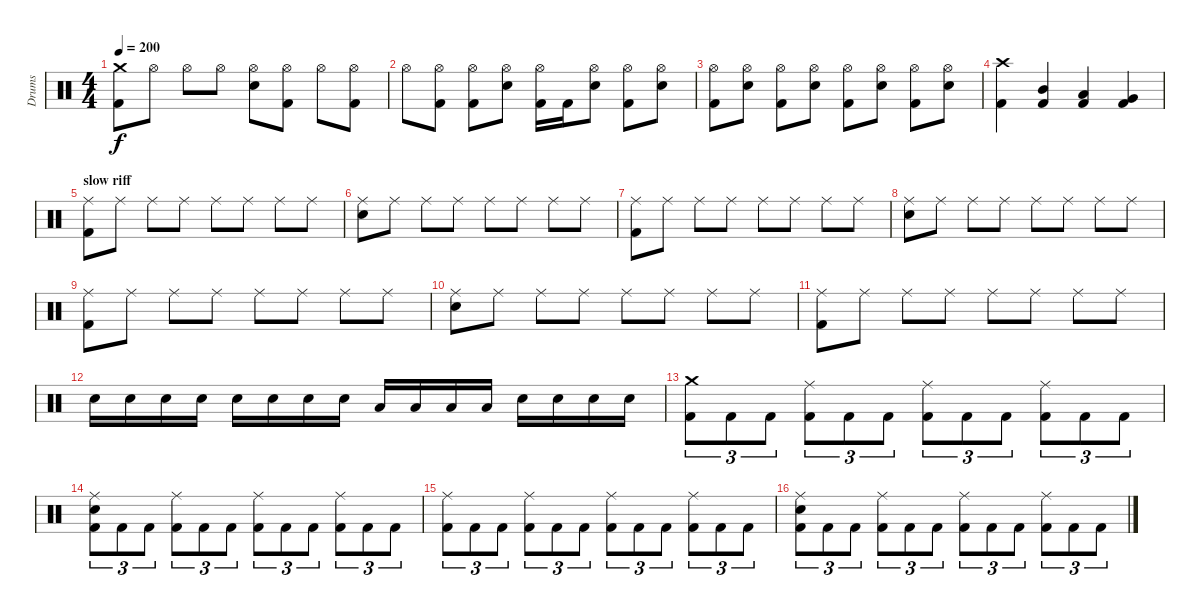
\track ("Drums" "Drums") {instrument percussion}
\staff {score}
\articulation defaults
\ts (4 4)
\tempo 200
\clef neutral
\ks c
("Crash medium (hit)" "Kick (hit) 2").8{dy f} "Hi-Hat (open)".8 "Hi-Hat (open)".8 "Hi-Hat (open)".8 ("Hi-Hat (open)" "Electric Snare (hit)").8 ("Hi-Hat (open)" "Kick (hit) 2").8 "Hi-Hat (open)".8 ("Hi-Hat (open)" "Kick (hit) 2").8 |
"Hi-Hat (open)".8 ("Hi-Hat (open)" "Kick (hit) 2").8 ("Hi-Hat (open)" "Kick (hit) 2").8 ("Hi-Hat (open)" "Electric Snare (hit)").8 ("Hi-Hat (open)" "Kick (hit) 2").16 "Kick (hit) 2".16 ("Hi-Hat (open)" "Electric Snare (hit)").8 ("Hi-Hat (open)" "Kick (hit) 2").8 ("Hi-Hat (open)" "Electric Snare (hit)").8 |
("Hi-Hat (open)" "Kick (hit) 2").8 ("Hi-Hat (open)" "Electric Snare (hit)").8 ("Hi-Hat (open)" "Kick (hit) 2").8 ("Hi-Hat (open)" "Electric Snare (hit)").8 ("Hi-Hat (open)" "Kick (hit) 2").8 ("Hi-Hat (open)" "Electric Snare (hit)").8 ("Hi-Hat (open)" "Kick (hit) 2").8 ("Hi-Hat (open)" "Electric Snare (hit)").8 |
("Crash high (hit)" "Kick (hit) 2").4 ("Mid Tom (hit)" "Kick (hit) 2").4 ("Low Tom (hit)" "Kick (hit) 2").4 ("Very Low Tom (hit)" "Kick (hit) 2").4 |
\section ("" "slow riff")
("Ride (middle)" "Kick (hit) 2").8 "Ride (middle)".8 "Ride (middle)".8 "Ride (middle)".8 "Ride (middle)".8 "Ride (middle)".8 "Ride (middle)".8 "Ride (middle)".8 |
("Ride (middle)" "Electric Snare (hit)").8 "Ride (middle)".8 "Ride (middle)".8 "Ride (middle)".8 "Ride (middle)".8 "Ride (middle)".8 "Ride (middle)".8 "Ride (middle)".8 |
("Ride (middle)" "Kick (hit) 2").8 "Ride (middle)".8 "Ride (middle)".8 "Ride (middle)".8 "Ride (middle)".8 "Ride (middle)".8 "Ride (middle)".8 "Ride (middle)".8 |
("Ride (middle)" "Electric Snare (hit)").8 "Ride (middle)".8 "Ride (middle)".8 "Ride (middle)".8 "Ride (middle)".8 "Ride (middle)".8 "Ride (middle)".8 "Ride (middle)".8 |
("Ride (middle)" "Kick (hit) 2").8 "Ride (middle)".8 "Ride (middle)".8 "Ride (middle)".8 "Ride (middle)".8 "Ride (middle)".8 "Ride (middle)".8 "Ride (middle)".8 |
("Ride (middle)" "Electric Snare (hit)").8 "Ride (middle)".8 "Ride (middle)".8 "Ride (middle)".8 "Ride (middle)".8 "Ride (middle)".8 "Ride (middle)".8 "Ride (middle)".8 |
("Ride (middle)" "Kick (hit) 2").8 "Ride (middle)".8 "Ride (middle)".8 "Ride (middle)".8 "Ride (middle)".8 "Ride (middle)".8 "Ride (middle)".8 "Ride (middle)".8 |
"Electric Snare (hit)".16 "Electric Snare (hit)".16 "Electric Snare (hit)".16 "Electric Snare (hit)".16 "Electric Snare (hit)".16 "Electric Snare (hit)".16 "Electric Snare (hit)".16 "Electric Snare (hit)".16 "Low Tom (hit)".16 "Low Tom (hit)".16 "Low Tom (hit)".16 "Low Tom (hit)".16 "Electric Snare (hit)".16 "Electric Snare (hit)".16 "Electric Snare (hit)".16 "Electric Snare (hit)".16 |
("Crash medium (hit)" "Kick (hit) 2").8{tu (3 2)} "Kick (hit) 2".8{tu (3 2)} "Kick (hit) 2".8{tu (3 2)} ("Ride (middle)" "Kick (hit) 2").8{tu (3 2)} "Kick (hit) 2".8{tu (3 2)} "Kick (hit) 2".8{tu (3 2)} ("Ride (middle)" "Kick (hit) 2").8{tu (3 2)} "Kick (hit) 2".8{tu (3 2)} "Kick (hit) 2".8{tu (3 2)} ("Ride (middle)" "Kick (hit) 2").8{tu (3 2)} "Kick (hit) 2".8{tu (3 2)} "Kick (hit) 2".8{tu (3 2)} |
("Ride (middle)" "Electric Snare (hit)" "Kick (hit) 2").8{tu (3 2)} "Kick (hit) 2".8{tu (3 2)} "Kick (hit) 2".8{tu (3 2)} ("Ride (middle)" "Kick (hit) 2").8{tu (3 2)} "Kick (hit) 2".8{tu (3 2)} "Kick (hit) 2".8{tu (3 2)} ("Ride (middle)" "Kick (hit) 2").8{tu (3 2)} "Kick (hit) 2".8{tu (3 2)} "Kick (hit) 2".8{tu (3 2)} ("Ride (middle)" "Kick (hit) 2").8{tu (3 2)} "Kick (hit) 2".8{tu (3 2)} "Kick (hit) 2".8{tu (3 2)} |
("Ride (middle)" "Kick (hit) 2").8{tu (3 2)} "Kick (hit) 2".8{tu (3 2)} "Kick (hit) 2".8{tu (3 2)} ("Ride (middle)" "Kick (hit) 2").8{tu (3 2)} "Kick (hit) 2".8{tu (3 2)} "Kick (hit) 2".8{tu (3 2)} ("Ride (middle)" "Kick (hit) 2").8{tu (3 2)} "Kick (hit) 2".8{tu (3 2)} "Kick (hit) 2".8{tu (3 2)} ("Ride (middle)" "Kick (hit) 2").8{tu (3 2)} "Kick (hit) 2".8{tu (3 2)} "Kick (hit) 2".8{tu (3 2)} |
("Ride (middle)" "Electric Snare (hit)" "Kick (hit) 2").8{tu (3 2)} "Kick (hit) 2".8{tu (3 2)} "Kick (hit) 2".8{tu (3 2)} ("Ride (middle)" "Kick (hit) 2").8{tu (3 2)} "Kick (hit) 2".8{tu (3 2)} "Kick (hit) 2".8{tu (3 2)} ("Ride (middle)" "Kick (hit) 2").8{tu (3 2)} "Kick (hit) 2".8{tu (3 2)} "Kick (hit) 2".8{tu (3 2)} ("Ride (middle)" "Kick (hit) 2").8{tu (3 2)} "Kick (hit) 2".8{tu (3 2)} "Kick (hit) 2".8{tu (3 2)}
